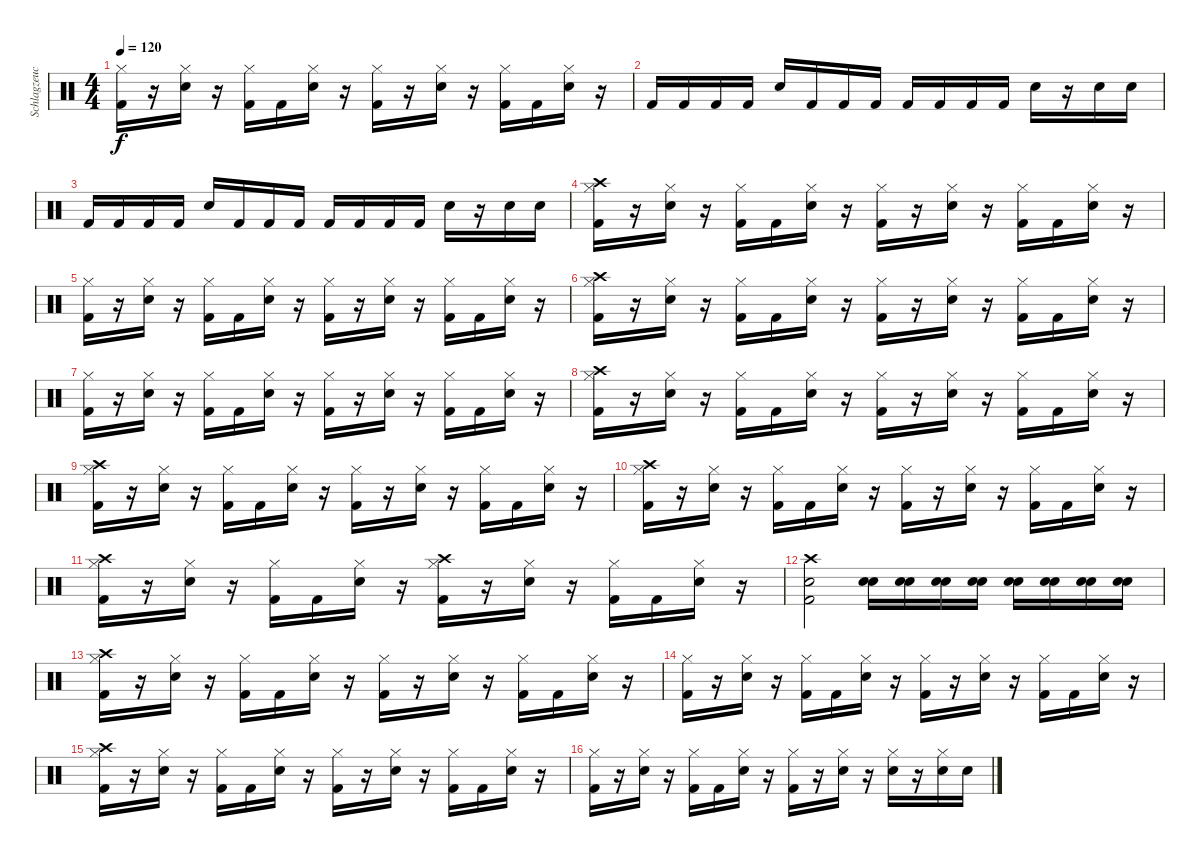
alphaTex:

\track ("Schlagzeuch" "Schlagzeuc") {instrument percussion}
\staff {score}
\articulation defaults
\ts (4 4)
\tempo 120
\clef neutral
\ks c
("Hi-Hat (closed)" "Kick (hit) 2").16{dy f} r.16 ("Hi-Hat (closed)" "Snare (hit) 2").16 r.16 ("Hi-Hat (closed)" "Kick (hit) 2").16 "Kick (hit) 2".16 ("Hi-Hat (closed)" "Snare (hit) 2").16 r.16 ("Hi-Hat (closed)" "Kick (hit) 2").16 r.16 ("Hi-Hat (closed)" "Snare (hit) 2").16 r.16 ("Hi-Hat (closed)" "Kick (hit) 2").16 "Kick (hit) 2".16 ("Hi-Hat (closed)" "Snare (hit) 2").16 r.16 |
"Kick (hit) 2".16 "Kick (hit) 2".16 "Kick (hit) 2".16 "Kick (hit) 2".16 "Snare (hit) 2".16 "Kick (hit) 2".16 "Kick (hit) 2".16 "Kick (hit) 2".16 "Kick (hit) 2".16 "Kick (hit) 2".16 "Kick (hit) 2".16 "Kick (hit) 2".16 "Snare (hit) 2".16 r.16 "Snare (hit) 2".16 "Snare (hit) 2".16 |
"Kick (hit) 2".16 "Kick (hit) 2".16 "Kick (hit) 2".16 "Kick (hit) 2".16 "Snare (hit) 2".16 "Kick (hit) 2".16 "Kick (hit) 2".16 "Kick (hit) 2".16 "Kick (hit) 2".16 "Kick (hit) 2".16 "Kick (hit) 2".16 "Kick (hit) 2".16 "Snare (hit) 2".16 r.16 "Snare (hit) 2".16 "Snare (hit) 2".16 |
("Hi-Hat (closed)" "Kick (hit) 2" "Crash high (hit)").16 r.16 ("Hi-Hat (closed)" "Snare (hit) 2").16 r.16 ("Hi-Hat (closed)" "Kick (hit) 2").16 "Kick (hit) 2".16 ("Hi-Hat (closed)" "Snare (hit) 2").16 r.16 ("Hi-Hat (closed)" "Kick (hit) 2").16 r.16 ("Hi-Hat (closed)" "Snare (hit) 2").16 r.16 ("Hi-Hat (closed)" "Kick (hit) 2").16 "Kick (hit) 2".16 ("Hi-Hat (closed)" "Snare (hit) 2").16 r.16 |
("Hi-Hat (closed)" "Kick (hit) 2").16 r.16 ("Hi-Hat (closed)" "Snare (hit) 2").16 r.16 ("Hi-Hat (closed)" "Kick (hit) 2").16 "Kick (hit) 2".16 ("Hi-Hat (closed)" "Snare (hit) 2").16 r.16 ("Hi-Hat (closed)" "Kick (hit) 2").16 r.16 ("Hi-Hat (closed)" "Snare (hit) 2").16 r.16 ("Hi-Hat (closed)" "Kick (hit) 2").16 "Kick (hit) 2".16 ("Hi-Hat (closed)" "Snare (hit) 2").16 r.16 |
("Hi-Hat (closed)" "Kick (hit) 2" "Crash high (hit)").16 r.16 ("Hi-Hat (closed)" "Snare (hit) 2").16 r.16 ("Hi-Hat (closed)" "Kick (hit) 2").16 "Kick (hit) 2".16 ("Hi-Hat (closed)" "Snare (hit) 2").16 r.16 ("Hi-Hat (closed)" "Kick (hit) 2").16 r.16 ("Hi-Hat (closed)" "Snare (hit) 2").16 r.16 ("Hi-Hat (closed)" "Kick (hit) 2").16 "Kick (hit) 2".16 ("Hi-Hat (closed)" "Snare (hit) 2").16 r.16 |
("Hi-Hat (closed)" "Kick (hit) 2").16 r.16 ("Hi-Hat (closed)" "Snare (hit) 2").16 r.16 ("Hi-Hat (closed)" "Kick (hit) 2").16 "Kick (hit) 2".16 ("Hi-Hat (closed)" "Snare (hit) 2").16 r.16 ("Hi-Hat (closed)" "Kick (hit) 2").16 r.16 ("Hi-Hat (closed)" "Snare (hit) 2").16 r.16 ("Hi-Hat (closed)" "Kick (hit) 2").16 "Kick (hit) 2".16 ("Hi-Hat (closed)" "Snare (hit) 2").16 r.16 |
("Hi-Hat (closed)" "Kick (hit) 2" "Crash high (hit)").16 r.16 ("Hi-Hat (closed)" "Snare (hit) 2").16 r.16 ("Hi-Hat (closed)" "Kick (hit) 2").16 "Kick (hit) 2".16 ("Hi-Hat (closed)" "Snare (hit) 2").16 r.16 ("Hi-Hat (closed)" "Kick (hit) 2").16 r.16 ("Hi-Hat (closed)" "Snare (hit) 2").16 r.16 ("Hi-Hat (closed)" "Kick (hit) 2").16 "Kick (hit) 2".16 ("Hi-Hat (closed)" "Snare (hit) 2").16 r.16 |
("Hi-Hat (closed)" "Kick (hit) 2" "Crash high (hit)").16 r.16 ("Hi-Hat (closed)" "Snare (hit) 2").16 r.16 ("Hi-Hat (closed)" "Kick (hit) 2").16 "Kick (hit) 2".16 ("Hi-Hat (closed)" "Snare (hit) 2").16 r.16 ("Hi-Hat (closed)" "Kick (hit) 2").16 r.16 ("Hi-Hat (closed)" "Snare (hit) 2").16 r.16 ("Hi-Hat (closed)" "Kick (hit) 2").16 "Kick (hit) 2".16 ("Hi-Hat (closed)" "Snare (hit) 2").16 r.16 |
("Hi-Hat (closed)" "Kick (hit) 2" "Crash high (hit)").16 r.16 ("Hi-Hat (closed)" "Snare (hit) 2").16 r.16 ("Hi-Hat (closed)" "Kick (hit) 2").16 "Kick (hit) 2".16 ("Hi-Hat (closed)" "Snare (hit) 2").16 r.16 ("Hi-Hat (closed)" "Kick (hit) 2").16 r.16 ("Hi-Hat (closed)" "Snare (hit) 2").16 r.16 ("Hi-Hat (closed)" "Kick (hit) 2").16 "Kick (hit) 2".16 ("Hi-Hat (closed)" "Snare (hit) 2").16 r.16 |
("Hi-Hat (closed)" "Kick (hit) 2" "Crash high (hit)").16 r.16 ("Hi-Hat (closed)" "Snare (hit) 2").16 r.16 ("Hi-Hat (closed)" "Kick (hit) 2").16 "Kick (hit) 2".16 ("Hi-Hat (closed)" "Snare (hit) 2").16 r.16 ("Hi-Hat (closed)" "Kick (hit) 2" "Crash high (hit)").16 r.16 ("Hi-Hat (closed)" "Snare (hit) 2").16 r.16 ("Hi-Hat (closed)" "Kick (hit) 2").16 "Kick (hit) 2".16 ("Hi-Hat (closed)" "Snare (hit) 2").16 r.16 |
("Kick (hit) 2" "Snare (hit) 2" "Crash high (hit)").2 ("Snare (hit) 2" "Snare (hit) 2").16 ("Snare (hit) 2" "Snare (hit) 2").16 ("Snare (hit) 2" "Snare (hit) 2").16 ("Snare (hit) 2" "Snare (hit) 2").16 ("Snare (hit) 2" "Snare (hit) 2").16 ("Snare (hit) 2" "Snare (hit) 2").16 ("Snare (hit) 2" "Snare (hit) 2").16 ("Snare (hit) 2" "Snare (hit) 2").16 |
("Hi-Hat (closed)" "Kick (hit) 2" "Crash high (hit)").16 r.16 ("Hi-Hat (closed)" "Snare (hit) 2").16 r.16 ("Hi-Hat (closed)" "Kick (hit) 2").16 "Kick (hit) 2".16 ("Hi-Hat (closed)" "Snare (hit) 2").16 r.16 ("Hi-Hat (closed)" "Kick (hit) 2").16 r.16 ("Hi-Hat (closed)" "Snare (hit) 2").16 r.16 ("Hi-Hat (closed)" "Kick (hit) 2").16 "Kick (hit) 2".16 ("Hi-Hat (closed)" "Snare (hit) 2").16 r.16 |
("Hi-Hat (closed)" "Kick (hit) 2").16 r.16 ("Hi-Hat (closed)" "Snare (hit) 2").16 r.16 ("Hi-Hat (closed)" "Kick (hit) 2").16 "Kick (hit) 2".16 ("Hi-Hat (closed)" "Snare (hit) 2").16 r.16 ("Hi-Hat (closed)" "Kick (hit) 2").16 r.16 ("Hi-Hat (closed)" "Snare (hit) 2").16 r.16 ("Hi-Hat (closed)" "Kick (hit) 2").16 "Kick (hit) 2".16 ("Hi-Hat (closed)" "Snare (hit) 2").16 r.16 |
("Hi-Hat (closed)" "Kick (hit) 2" "Crash high (hit)").16 r.16 ("Hi-Hat (closed)" "Snare (hit) 2").16 r.16 ("Hi-Hat (closed)" "Kick (hit) 2").16 "Kick (hit) 2".16 ("Hi-Hat (closed)" "Snare (hit) 2").16 r.16 ("Hi-Hat (closed)" "Kick (hit) 2").16 r.16 ("Hi-Hat (closed)" "Snare (hit) 2").16 r.16 ("Hi-Hat (closed)" "Kick (hit) 2").16 "Kick (hit) 2".16 ("Hi-Hat (closed)" "Snare (hit) 2").16 r.16 |
("Hi-Hat (closed)" "Kick (hit) 2").16 r.16 ("Hi-Hat (closed)" "Snare (hit) 2").16 r.16 ("Hi-Hat (closed)" "Kick (hit) 2").16 "Kick (hit) 2".16 ("Hi-Hat (closed)" "Snare (hit) 2").16 r.16 ("Hi-Hat (closed)" "Kick (hit) 2").16 r.16 ("Hi-Hat (closed)" "Snare (hit) 2").16 r.16 ("Hi-Hat (closed)" "Snare (hit) 2").16 r.16 ("Hi-Hat (closed)" "Snare (hit) 2").16 "Snare (hit) 2".16
